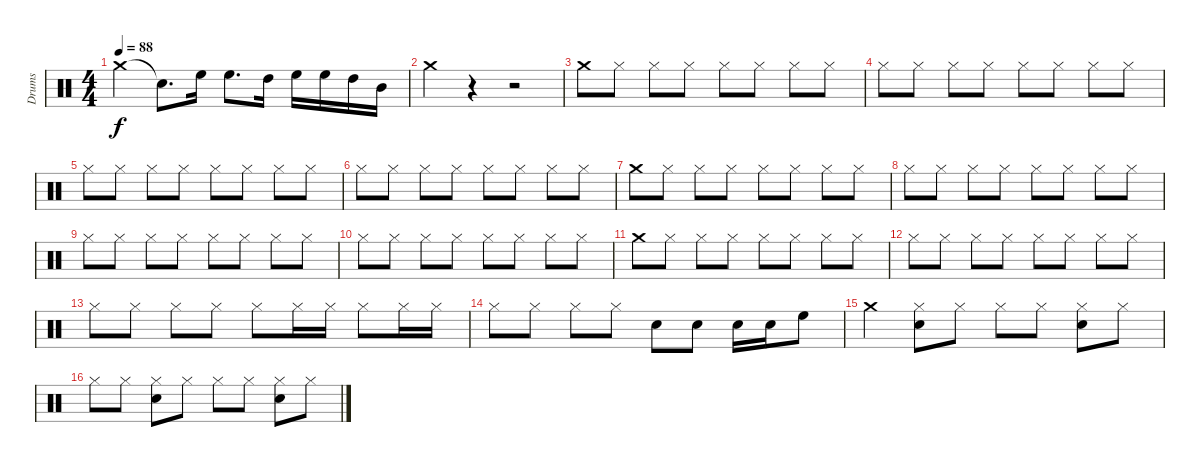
\track ("Drums" "Drums") {instrument percussion}
\staff {score}
\articulation defaults
\ts (4 4)
\tempo 88
\clef neutral
\ks c "Crash medium (hit)".4{dy f} "Snare (hit)"{t}.8{d} "High Floor Tom (hit)".16 "High Floor Tom (hit)".8{d} "High Tom (hit)".16 "High Floor Tom (hit)".16 "High Floor Tom (hit)".16 "High Tom (hit)".16 "Mid Tom (hit)".16
|
"Crash medium (hit)".4 r.4 r.2 |
"Crash medium (hit)".8 "Hi-Hat (closed)".8 "Hi-Hat (closed)".8 "Hi-Hat (closed)".8 "Hi-Hat (closed)".8 "Hi-Hat (closed)".8 "Hi-Hat (closed)".8 "Hi-Hat (closed)".8 |
"Hi-Hat (closed)".8 "Hi-Hat (closed)".8 "Hi-Hat (closed)".8 "Hi-Hat (closed)".8 "Hi-Hat (closed)".8 "Hi-Hat (closed)".8 "Hi-Hat (closed)".8 "Hi-Hat (closed)".8 |
"Hi-Hat (closed)".8 "Hi-Hat (closed)".8 "Hi-Hat (closed)".8 "Hi-Hat (closed)".8 "Hi-Hat (closed)".8 "Hi-Hat (closed)".8 "Hi-Hat (closed)".8 "Hi-Hat (closed)".8 |
"Hi-Hat (closed)".8 "Hi-Hat (closed)".8 "Hi-Hat (closed)".8 "Hi-Hat (closed)".8 "Hi-Hat (closed)".8 "Hi-Hat (closed)".8 "Hi-Hat (closed)".8 "Hi-Hat (closed)".8 |
"Crash medium (hit)".8 "Hi-Hat (closed)".8 "Hi-Hat (closed)".8 "Hi-Hat (closed)".8 "Hi-Hat (closed)".8 "Hi-Hat (closed)".8 "Hi-Hat (closed)".8 "Hi-Hat (closed)".8 |
"Hi-Hat (closed)".8 "Hi-Hat (closed)".8 "Hi-Hat (closed)".8 "Hi-Hat (closed)".8 "Hi-Hat (closed)".8 "Hi-Hat (closed)".8 "Hi-Hat (closed)".8 "Hi-Hat (closed)".8 |
"Hi-Hat (closed)".8 "Hi-Hat (closed)".8 "Hi-Hat (closed)".8 "Hi-Hat (closed)".8 "Hi-Hat (closed)".8 "Hi-Hat (closed)".8 "Hi-Hat (closed)".8 "Hi-Hat (closed)".8 |
"Hi-Hat (closed)".8 "Hi-Hat (closed)".8 "Hi-Hat (closed)".8 "Hi-Hat (closed)".8 "Hi-Hat (closed)".8 "Hi-Hat (closed)".8 "Hi-Hat (closed)".8 "Hi-Hat (closed)".8 |
"Crash medium (hit)".8 "Hi-Hat (closed)".8 "Hi-Hat (closed)".8 "Hi-Hat (closed)".8 "Hi-Hat (closed)".8 "Hi-Hat (closed)".8 "Hi-Hat (closed)".8 "Hi-Hat (closed)".8 |
"Hi-Hat (closed)".8 "Hi-Hat (closed)".8 "Hi-Hat (closed)".8 "Hi-Hat (closed)".8 "Hi-Hat (closed)".8 "Hi-Hat (closed)".8 "Hi-Hat (closed)".8 "Hi-Hat (closed)".8 |
"Hi-Hat (closed)".8 "Hi-Hat (closed)".8 "Hi-Hat (closed)".8 "Hi-Hat (closed)".8 "Hi-Hat (closed)".8 "Hi-Hat (closed)".16 "Hi-Hat (closed)".16 "Hi-Hat (closed)".8 "Hi-Hat (closed)".16 "Hi-Hat (closed)".16 |
"Hi-Hat (closed)".8 "Hi-Hat (closed)".8 "Hi-Hat (closed)".8 "Hi-Hat (closed)".8 "Electric Snare (hit)".8 "Electric Snare (hit)".8 "Electric Snare (hit)".16 "Electric Snare (hit)".16 "High Floor Tom (hit)".8 |
"Crash medium (hit)".4 ("Hi-Hat (closed)" "Electric Snare (hit)").8 "Hi-Hat (closed)".8 "Hi-Hat (closed)".8 "Hi-Hat (closed)".8 ("Hi-Hat (closed)" "Electric Snare (hit)").8 "Hi-Hat (closed)".8 |
"Hi-Hat (closed)".8 "Hi-Hat (closed)".8 ("Hi-Hat (closed)" "Electric Snare (hit)").8 "Hi-Hat (closed)".8 "Hi-Hat (closed)".8 "Hi-Hat (closed)".8 ("Hi-Hat (closed)" "Electric Snare (hit)").8 "Hi-Hat (closed)".8
